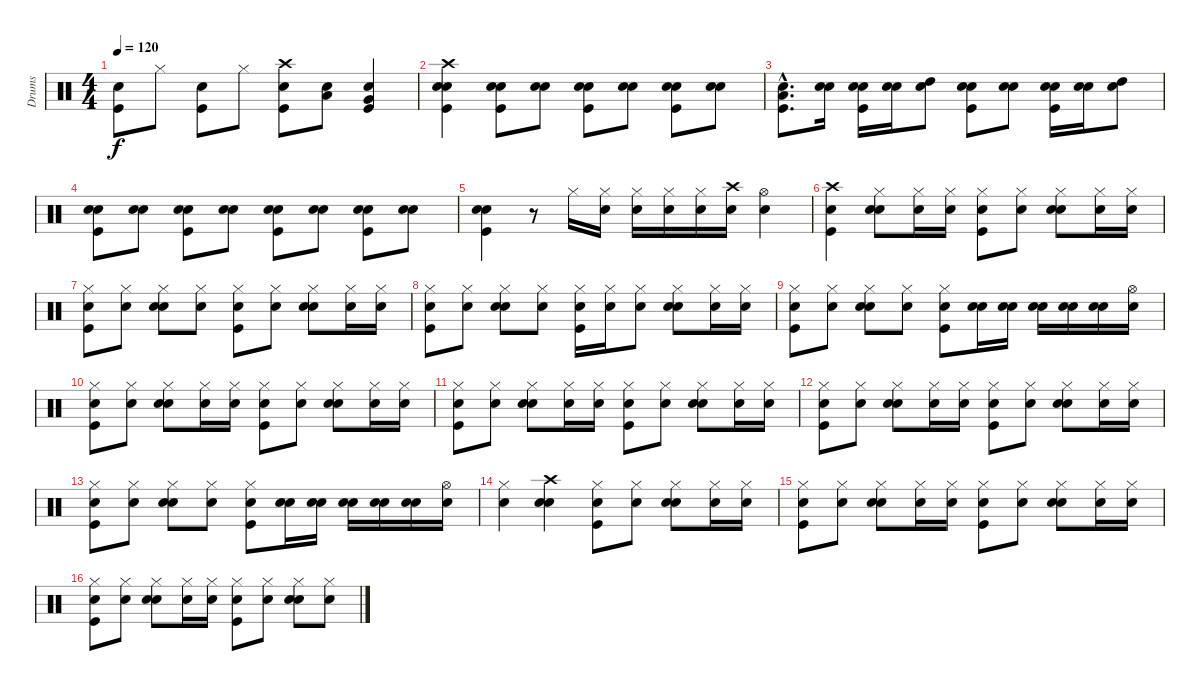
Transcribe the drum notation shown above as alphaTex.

\track ("Drums" "Drums") {instrument percussion}
\staff {score}
\articulation defaults
\ts (4 4)
\tempo 120
\clef neutral
\ks c
("Snare (hit)" "Kick (hit)").8{dy f} "Hi-Hat (closed)".8 ("Snare (hit)" "Kick (hit)").8 "Hi-Hat (closed)".8 ("Snare (hit)" "Crash high (hit)" "Kick (hit)").8 ("Snare (hit)" "Low Tom (hit)").8 ("Snare (hit)" "Very Low Tom (hit)" "Kick (hit)").4 |
("Snare (hit)" "Electric Snare (hit)" "Crash high (hit)" "Kick (hit)").4 ("Snare (hit)" "Electric Snare (hit)" "Kick (hit)").8 ("Snare (hit)" "Electric Snare (hit)").8 ("Snare (hit)" "Electric Snare (hit)" "Kick (hit)").8 ("Snare (hit)" "Electric Snare (hit)").8 ("Snare (hit)" "Electric Snare (hit)" "Kick (hit)").8 ("Snare (hit)" "Electric Snare (hit)").8 |
("Snare (hit)"{hac} "Low Tom (hit)"{hac} "Kick (hit)"{hac}).8{d} ("Snare (hit)" "Electric Snare (hit)").16 ("Snare (hit)" "Electric Snare (hit)" "Kick (hit)").16 ("Snare (hit)" "Electric Snare (hit)").16 ("Snare (hit)" "High Tom (hit)").8 ("Snare (hit)" "Electric Snare (hit)" "Kick (hit)").8 ("Snare (hit)" "Electric Snare (hit)").8 ("Snare (hit)" "Electric Snare (hit)" "Kick (hit)").16 ("Snare (hit)" "Electric Snare (hit)").16 ("Snare (hit)" "High Tom (hit)").8 |
("Snare (hit)" "Electric Snare (hit)" "Kick (hit)").8 ("Snare (hit)" "Electric Snare (hit)").8 ("Snare (hit)" "Electric Snare (hit)" "Kick (hit)").8 ("Snare (hit)" "Electric Snare (hit)").8 ("Snare (hit)" "Electric Snare (hit)" "Kick (hit)").8 ("Snare (hit)" "Electric Snare (hit)").8 ("Snare (hit)" "Electric Snare (hit)" "Kick (hit)").8 ("Snare (hit)" "Electric Snare (hit)").8 |
("Snare (hit)" "Electric Snare (hit)" "Kick (hit)").4 r.8 "Hi-Hat (closed)".16 ("Snare (hit)" "Hi-Hat (closed)").16 ("Snare (hit)" "Hi-Hat (closed)").16 ("Snare (hit)" "Hi-Hat (closed)").16 ("Snare (hit)" "Hi-Hat (closed)").16 ("Snare (hit)" "Crash high (hit)").16 ("Snare (hit)" "Hi-Hat (open)").4 |
("Snare (hit)" "Kick (hit)" "Crash high (hit)").4 ("Snare (hit)" "Electric Snare (hit)" "Hi-Hat (closed)").8 ("Snare (hit)" "Hi-Hat (closed)").16 ("Snare (hit)" "Hi-Hat (closed)").16 ("Snare (hit)" "Kick (hit)" "Hi-Hat (closed)").8 ("Snare (hit)" "Hi-Hat (closed)").8 ("Snare (hit)" "Electric Snare (hit)" "Hi-Hat (closed)").8 ("Snare (hit)" "Hi-Hat (closed)").16 ("Snare (hit)" "Hi-Hat (closed)").16 |
("Snare (hit)" "Kick (hit)" "Hi-Hat (closed)").8 ("Snare (hit)" "Hi-Hat (closed)").8 ("Snare (hit)" "Electric Snare (hit)" "Hi-Hat (closed)").8 ("Snare (hit)" "Hi-Hat (closed)").8 ("Snare (hit)" "Kick (hit)" "Hi-Hat (closed)").8 ("Snare (hit)" "Hi-Hat (closed)").8 ("Snare (hit)" "Electric Snare (hit)" "Hi-Hat (closed)").8 ("Snare (hit)" "Hi-Hat (closed)").16 ("Snare (hit)" "Hi-Hat (closed)").16 |
("Snare (hit)" "Kick (hit)" "Hi-Hat (closed)").8 ("Snare (hit)" "Hi-Hat (closed)").8 ("Snare (hit)" "Electric Snare (hit)" "Hi-Hat (closed)").8 ("Snare (hit)" "Hi-Hat (closed)").8 ("Snare (hit)" "Kick (hit)" "Hi-Hat (closed)").16 ("Snare (hit)" "Hi-Hat (closed)").16 ("Snare (hit)" "Hi-Hat (closed)").8 ("Snare (hit)" "Electric Snare (hit)" "Hi-Hat (closed)").8 ("Snare (hit)" "Hi-Hat (closed)").16 ("Snare (hit)" "Hi-Hat (closed)").16 |
("Snare (hit)" "Kick (hit)" "Hi-Hat (closed)").8 ("Snare (hit)" "Hi-Hat (closed)").8 ("Snare (hit)" "Electric Snare (hit)" "Hi-Hat (closed)").8 ("Snare (hit)" "Hi-Hat (closed)").8 ("Snare (hit)" "Kick (hit)" "Hi-Hat (closed)").8 ("Snare (hit)" "Electric Snare (hit)").16 ("Snare (hit)" "Electric Snare (hit)").16 ("Snare (hit)" "Electric Snare (hit)").16 ("Snare (hit)" "Electric Snare (hit)").16 ("Snare (hit)" "Electric Snare (hit)").16 ("Snare (hit)" "Hi-Hat (open)").16 |
("Snare (hit)" "Kick (hit)" "Hi-Hat (closed)").8 ("Snare (hit)" "Hi-Hat (closed)").8 ("Snare (hit)" "Electric Snare (hit)" "Hi-Hat (closed)").8 ("Snare (hit)" "Hi-Hat (closed)").16 ("Snare (hit)" "Hi-Hat (closed)").16 ("Snare (hit)" "Kick (hit)" "Hi-Hat (closed)").8 ("Snare (hit)" "Hi-Hat (closed)").8 ("Snare (hit)" "Electric Snare (hit)" "Hi-Hat (closed)").8 ("Snare (hit)" "Hi-Hat (closed)").16 ("Snare (hit)" "Hi-Hat (closed)").16 |
("Snare (hit)" "Kick (hit)" "Hi-Hat (closed)").8 ("Snare (hit)" "Hi-Hat (closed)").8 ("Snare (hit)" "Electric Snare (hit)" "Hi-Hat (closed)").8 ("Snare (hit)" "Hi-Hat (closed)").16 ("Snare (hit)" "Hi-Hat (closed)").16 ("Snare (hit)" "Kick (hit)" "Hi-Hat (closed)").8 ("Snare (hit)" "Hi-Hat (closed)").8 ("Snare (hit)" "Electric Snare (hit)" "Hi-Hat (closed)").8 ("Snare (hit)" "Hi-Hat (closed)").16 ("Snare (hit)" "Hi-Hat (closed)").16 |
("Snare (hit)" "Kick (hit)" "Hi-Hat (closed)").8 ("Snare (hit)" "Hi-Hat (closed)").8 ("Snare (hit)" "Electric Snare (hit)" "Hi-Hat (closed)").8 ("Snare (hit)" "Hi-Hat (closed)").16 ("Snare (hit)" "Hi-Hat (closed)").16 ("Snare (hit)" "Kick (hit)" "Hi-Hat (closed)").8 ("Snare (hit)" "Hi-Hat (closed)").8 ("Snare (hit)" "Electric Snare (hit)" "Hi-Hat (closed)").8 ("Snare (hit)" "Hi-Hat (closed)").16 ("Snare (hit)" "Hi-Hat (closed)").16 |
("Snare (hit)" "Kick (hit)" "Hi-Hat (closed)").8 ("Snare (hit)" "Hi-Hat (closed)").8 ("Snare (hit)" "Electric Snare (hit)" "Hi-Hat (closed)").8 ("Snare (hit)" "Hi-Hat (closed)").8 ("Snare (hit)" "Kick (hit)" "Hi-Hat (closed)").8 ("Snare (hit)" "Electric Snare (hit)").16 ("Snare (hit)" "Electric Snare (hit)").16 ("Snare (hit)" "Electric Snare (hit)").16 ("Snare (hit)" "Electric Snare (hit)").16 ("Snare (hit)" "Electric Snare (hit)").16 ("Snare (hit)" "Hi-Hat (open)").16 |
("Snare (hit)" "Hi-Hat (closed)").4 ("Snare (hit)" "Electric Snare (hit)" "Crash high (hit)").4 ("Snare (hit)" "Kick (hit)" "Hi-Hat (closed)").8 ("Snare (hit)" "Hi-Hat (closed)").8 ("Snare (hit)" "Electric Snare (hit)" "Hi-Hat (closed)").8 ("Snare (hit)" "Hi-Hat (closed)").16 ("Snare (hit)" "Hi-Hat (closed)").16 |
("Snare (hit)" "Hi-Hat (closed)" "Kick (hit)").8 ("Snare (hit)" "Hi-Hat (closed)").8 ("Snare (hit)" "Electric Snare (hit)" "Hi-Hat (closed)").8 ("Snare (hit)" "Hi-Hat (closed)").16 ("Snare (hit)" "Hi-Hat (closed)").16 ("Snare (hit)" "Hi-Hat (closed)" "Kick (hit)").8 ("Snare (hit)" "Hi-Hat (closed)").8 ("Snare (hit)" "Electric Snare (hit)" "Hi-Hat (closed)").8 ("Snare (hit)" "Hi-Hat (closed)").16 ("Snare (hit)" "Hi-Hat (closed)").16 |
("Snare (hit)" "Hi-Hat (closed)" "Kick (hit)").8 ("Snare (hit)" "Hi-Hat (closed)").8 ("Snare (hit)" "Electric Snare (hit)" "Hi-Hat (closed)").8 ("Snare (hit)" "Hi-Hat (closed)").16 ("Snare (hit)" "Hi-Hat (closed)").16 ("Snare (hit)" "Hi-Hat (closed)" "Kick (hit)").8 ("Snare (hit)" "Hi-Hat (closed)").8 ("Snare (hit)" "Electric Snare (hit)" "Hi-Hat (closed)").8 ("Snare (hit)" "Hi-Hat (closed)").8
